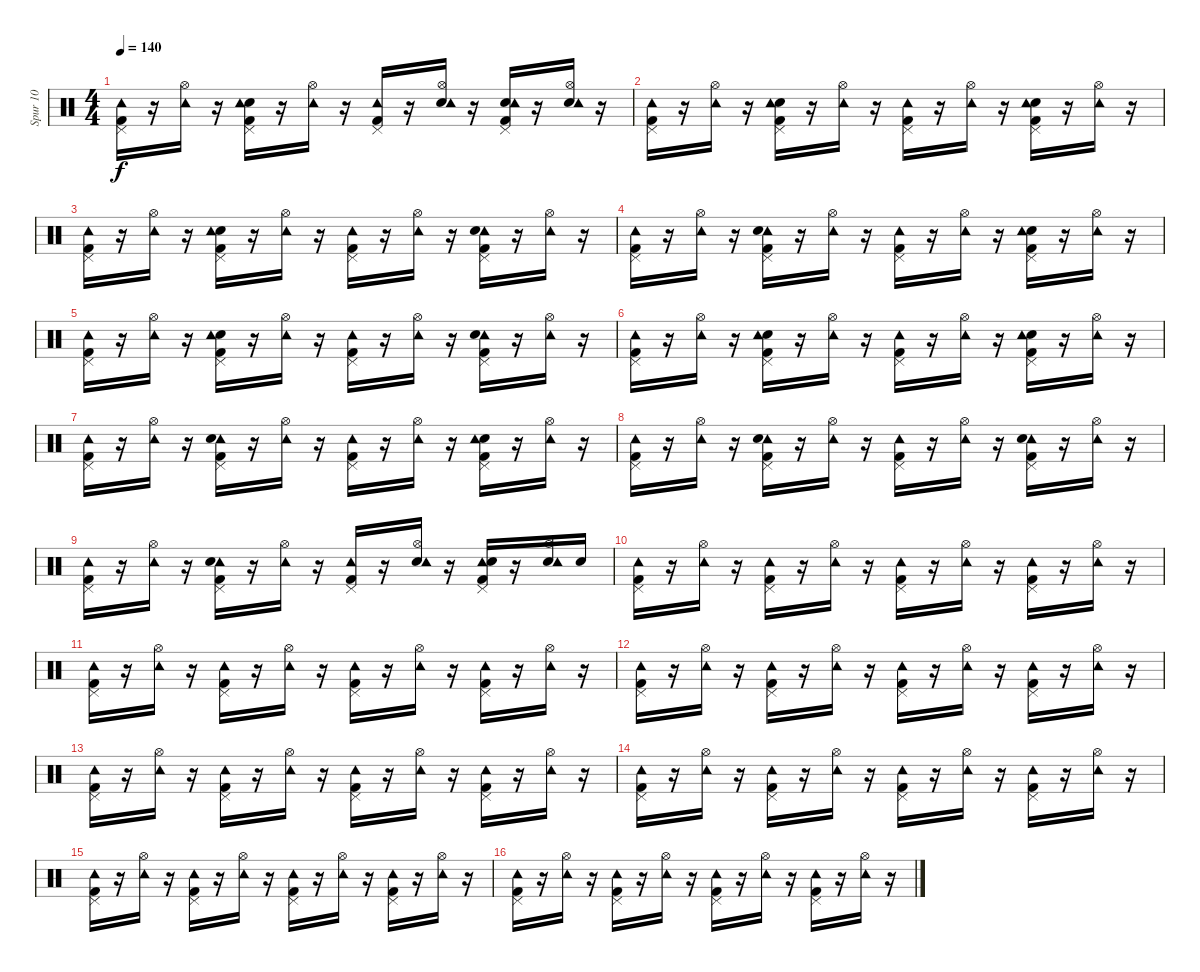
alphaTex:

\track ("Spur 10" "Spur 10") {instrument percussion}
\staff {score}
\articulation defaults
\ts (4 4)
\tempo 140
\clef neutral
\ks c
("Pedal Hi-Hat (hit)" "Tambourine (hit)" "Kick (hit) 2").16{dy f} r.16 ("Hi-Hat (open)" "Tambourine (hit)").16 r.16 ("Kick (hit) 2" "Pedal Hi-Hat (hit)" "Snare (hit) 2" "Tambourine (hit)").16 r.16 ("Tambourine (hit)" "Hi-Hat (open)").16 r.16 ("Tambourine (hit)" "Pedal Hi-Hat (hit)" "Kick (hit) 2").16 r.16 ("Snare (hit) 2" "Tambourine (hit)" "Hi-Hat (open)").16 r.16 ("Kick (hit) 2" "Snare (hit) 2" "Tambourine (hit)" "Pedal Hi-Hat (hit)").16 r.16 ("Snare (hit) 2" "Tambourine (hit)" "Hi-Hat (open)").16 r.16 |
("Tambourine (hit)" "Kick (hit) 2" "Pedal Hi-Hat (hit)").16 r.16 ("Tambourine (hit)" "Hi-Hat (open)").16 r.16 ("Kick (hit) 2" "Snare (hit) 2" "Pedal Hi-Hat (hit)" "Tambourine (hit)").16 r.16 ("Hi-Hat (open)" "Tambourine (hit)").16 r.16 ("Kick (hit) 2" "Pedal Hi-Hat (hit)" "Tambourine (hit)").16 r.16 ("Tambourine (hit)" "Hi-Hat (open)").16 r.16 ("Kick (hit) 2" "Snare (hit) 2" "Tambourine (hit)" "Pedal Hi-Hat (hit)").16 r.16 ("Tambourine (hit)" "Hi-Hat (open)").16 r.16 |
("Kick (hit) 2" "Pedal Hi-Hat (hit)" "Tambourine (hit)").16 r.16 ("Hi-Hat (open)" "Tambourine (hit)").16 r.16 ("Kick (hit) 2" "Snare (hit) 2" "Tambourine (hit)" "Pedal Hi-Hat (hit)").16 r.16 ("Tambourine (hit)" "Hi-Hat (open)").16 r.16 ("Tambourine (hit)" "Kick (hit) 2" "Pedal Hi-Hat (hit)").16 r.16 ("Hi-Hat (open)" "Tambourine (hit)").16 r.16 ("Kick (hit) 2" "Tambourine (hit)" "Snare (hit) 2" "Pedal Hi-Hat (hit)").16 r.16 ("Tambourine (hit)" "Hi-Hat (open)").16 r.16 |
("Pedal Hi-Hat (hit)" "Kick (hit) 2" "Tambourine (hit)").16 r.16 ("Hi-Hat (open)" "Tambourine (hit)").16 r.16 ("Kick (hit) 2" "Tambourine (hit)" "Snare (hit) 2" "Pedal Hi-Hat (hit)").16 r.16 ("Hi-Hat (open)" "Tambourine (hit)").16 r.16 ("Kick (hit) 2" "Tambourine (hit)" "Pedal Hi-Hat (hit)").16 r.16 ("Hi-Hat (open)" "Tambourine (hit)").16 r.16 ("Kick (hit) 2" "Snare (hit) 2" "Tambourine (hit)" "Pedal Hi-Hat (hit)").16 r.16 ("Tambourine (hit)" "Hi-Hat (open)").16 r.16 |
("Tambourine (hit)" "Kick (hit) 2" "Pedal Hi-Hat (hit)").16 r.16 ("Tambourine (hit)" "Hi-Hat (open)").16 r.16 ("Kick (hit) 2" "Snare (hit) 2" "Pedal Hi-Hat (hit)" "Tambourine (hit)").16 r.16 ("Hi-Hat (open)" "Tambourine (hit)").16 r.16 ("Kick (hit) 2" "Tambourine (hit)" "Pedal Hi-Hat (hit)").16 r.16 ("Tambourine (hit)" "Hi-Hat (open)").16 r.16 ("Kick (hit) 2" "Tambourine (hit)" "Snare (hit) 2" "Pedal Hi-Hat (hit)").16 r.16 ("Hi-Hat (open)" "Tambourine (hit)").16 r.16 |
("Tambourine (hit)" "Pedal Hi-Hat (hit)" "Kick (hit) 2").16 r.16 ("Tambourine (hit)" "Hi-Hat (open)").16 r.16 ("Kick (hit) 2" "Pedal Hi-Hat (hit)" "Snare (hit) 2" "Tambourine (hit)").16 r.16 ("Hi-Hat (open)" "Tambourine (hit)").16 r.16 ("Kick (hit) 2" "Pedal Hi-Hat (hit)" "Tambourine (hit)").16 r.16 ("Tambourine (hit)" "Hi-Hat (open)").16 r.16 ("Kick (hit) 2" "Snare (hit) 2" "Tambourine (hit)" "Pedal Hi-Hat (hit)").16 r.16 ("Hi-Hat (open)" "Tambourine (hit)").16 r.16 |
("Tambourine (hit)" "Kick (hit) 2" "Pedal Hi-Hat (hit)").16 r.16 ("Hi-Hat (open)" "Tambourine (hit)").16 r.16 ("Kick (hit) 2" "Tambourine (hit)" "Pedal Hi-Hat (hit)" "Snare (hit) 2").16 r.16 ("Tambourine (hit)" "Hi-Hat (open)").16 r.16 ("Pedal Hi-Hat (hit)" "Tambourine (hit)" "Kick (hit) 2").16 r.16 ("Hi-Hat (open)" "Tambourine (hit)").16 r.16 ("Kick (hit) 2" "Pedal Hi-Hat (hit)" "Snare (hit) 2" "Tambourine (hit)").16 r.16 ("Hi-Hat (open)" "Tambourine (hit)").16 r.16 |
("Tambourine (hit)" "Pedal Hi-Hat (hit)" "Kick (hit) 2").16 r.16 ("Hi-Hat (open)" "Tambourine (hit)").16 r.16 ("Kick (hit) 2" "Tambourine (hit)" "Pedal Hi-Hat (hit)" "Snare (hit) 2").16 r.16 ("Hi-Hat (open)" "Tambourine (hit)").16 r.16 ("Tambourine (hit)" "Kick (hit) 2" "Pedal Hi-Hat (hit)").16 r.16 ("Tambourine (hit)" "Hi-Hat (open)").16 r.16 ("Kick (hit) 2" "Pedal Hi-Hat (hit)" "Tambourine (hit)" "Snare (hit) 2").16 r.16 ("Hi-Hat (open)" "Tambourine (hit)").16 r.16 |
("Pedal Hi-Hat (hit)" "Kick (hit) 2" "Tambourine (hit)").16 r.16 ("Tambourine (hit)" "Hi-Hat (open)").16 r.16 ("Kick (hit) 2" "Pedal Hi-Hat (hit)" "Tambourine (hit)" "Snare (hit) 2").16 r.16 ("Hi-Hat (open)" "Tambourine (hit)").16 r.16 ("Kick (hit) 2" "Pedal Hi-Hat (hit)" "Tambourine (hit)").16 r.16 ("Snare (hit) 2" "Hi-Hat (open)" "Tambourine (hit)").16 r.16 ("Kick (hit) 2" "Pedal Hi-Hat (hit)" "Tambourine (hit)" "Snare (hit) 2").16 r.16 ("Hi-Hat (open)" "Snare (hit) 2" "Tambourine (hit)").16 "Snare (hit) 2".16 |
("Kick (hit) 2" "Tambourine (hit)" "Pedal Hi-Hat (hit)").16 r.16 ("Hi-Hat (open)" "Tambourine (hit)").16 r.16 ("Kick (hit) 2" "Pedal Hi-Hat (hit)" "Tambourine (hit)").16 r.16 ("Hi-Hat (open)" "Tambourine (hit)").16 r.16 ("Kick (hit) 2" "Tambourine (hit)" "Pedal Hi-Hat (hit)").16 r.16 ("Tambourine (hit)" "Hi-Hat (open)").16 r.16 ("Kick (hit) 2" "Tambourine (hit)" "Pedal Hi-Hat (hit)").16 r.16 ("Hi-Hat (open)" "Tambourine (hit)").16 r.16 |
("Kick (hit) 2" "Tambourine (hit)" "Pedal Hi-Hat (hit)").16 r.16 ("Tambourine (hit)" "Hi-Hat (open)").16 r.16 ("Kick (hit) 2" "Pedal Hi-Hat (hit)" "Tambourine (hit)").16 r.16 ("Tambourine (hit)" "Hi-Hat (open)").16 r.16 ("Pedal Hi-Hat (hit)" "Kick (hit) 2" "Tambourine (hit)").16 r.16 ("Hi-Hat (open)" "Tambourine (hit)").16 r.16 ("Kick (hit) 2" "Pedal Hi-Hat (hit)" "Tambourine (hit)").16 r.16 ("Tambourine (hit)" "Hi-Hat (open)").16 r.16 |
("Pedal Hi-Hat (hit)" "Tambourine (hit)" "Kick (hit) 2").16 r.16 ("Hi-Hat (open)" "Tambourine (hit)").16 r.16 ("Kick (hit) 2" "Tambourine (hit)" "Pedal Hi-Hat (hit)").16 r.16 ("Hi-Hat (open)" "Tambourine (hit)").16 r.16 ("Tambourine (hit)" "Kick (hit) 2" "Pedal Hi-Hat (hit)").16 r.16 ("Tambourine (hit)" "Hi-Hat (open)").16 r.16 ("Kick (hit) 2" "Tambourine (hit)" "Pedal Hi-Hat (hit)").16 r.16 ("Tambourine (hit)" "Hi-Hat (open)").16 r.16 |
("Pedal Hi-Hat (hit)" "Tambourine (hit)" "Kick (hit) 2").16 r.16 ("Tambourine (hit)" "Hi-Hat (open)").16 r.16 ("Kick (hit) 2" "Pedal Hi-Hat (hit)" "Tambourine (hit)").16 r.16 ("Tambourine (hit)" "Hi-Hat (open)").16 r.16 ("Tambourine (hit)" "Kick (hit) 2" "Pedal Hi-Hat (hit)").16 r.16 ("Hi-Hat (open)" "Tambourine (hit)").16 r.16 ("Kick (hit) 2" "Tambourine (hit)" "Pedal Hi-Hat (hit)").16 r.16 ("Tambourine (hit)" "Hi-Hat (open)").16 r.16 |
("Kick (hit) 2" "Tambourine (hit)" "Pedal Hi-Hat (hit)").16 r.16 ("Hi-Hat (open)" "Tambourine (hit)").16 r.16 ("Kick (hit) 2" "Pedal Hi-Hat (hit)" "Tambourine (hit)").16 r.16 ("Hi-Hat (open)" "Tambourine (hit)").16 r.16 ("Kick (hit) 2" "Tambourine (hit)" "Pedal Hi-Hat (hit)").16 r.16 ("Tambourine (hit)" "Hi-Hat (open)").16 r.16 ("Kick (hit) 2" "Tambourine (hit)" "Pedal Hi-Hat (hit)").16 r.16 ("Hi-Hat (open)" "Tambourine (hit)").16 r.16 |
("Kick (hit) 2" "Tambourine (hit)" "Pedal Hi-Hat (hit)").16 r.16 ("Tambourine (hit)" "Hi-Hat (open)").16 r.16 ("Kick (hit) 2" "Pedal Hi-Hat (hit)" "Tambourine (hit)").16 r.16 ("Tambourine (hit)" "Hi-Hat (open)").16 r.16 ("Pedal Hi-Hat (hit)" "Kick (hit) 2" "Tambourine (hit)").16 r.16 ("Hi-Hat (open)" "Tambourine (hit)").16 r.16 ("Kick (hit) 2" "Pedal Hi-Hat (hit)" "Tambourine (hit)").16 r.16 ("Tambourine (hit)" "Hi-Hat (open)").16 r.16 |
("Pedal Hi-Hat (hit)" "Tambourine (hit)" "Kick (hit) 2").16 r.16 ("Hi-Hat (open)" "Tambourine (hit)").16 r.16 ("Kick (hit) 2" "Tambourine (hit)" "Pedal Hi-Hat (hit)").16 r.16 ("Hi-Hat (open)" "Tambourine (hit)").16 r.16 ("Tambourine (hit)" "Kick (hit) 2" "Pedal Hi-Hat (hit)").16 r.16 ("Tambourine (hit)" "Hi-Hat (open)").16 r.16 ("Kick (hit) 2" "Tambourine (hit)" "Pedal Hi-Hat (hit)").16 r.16 ("Tambourine (hit)" "Hi-Hat (open)").16 r.16
